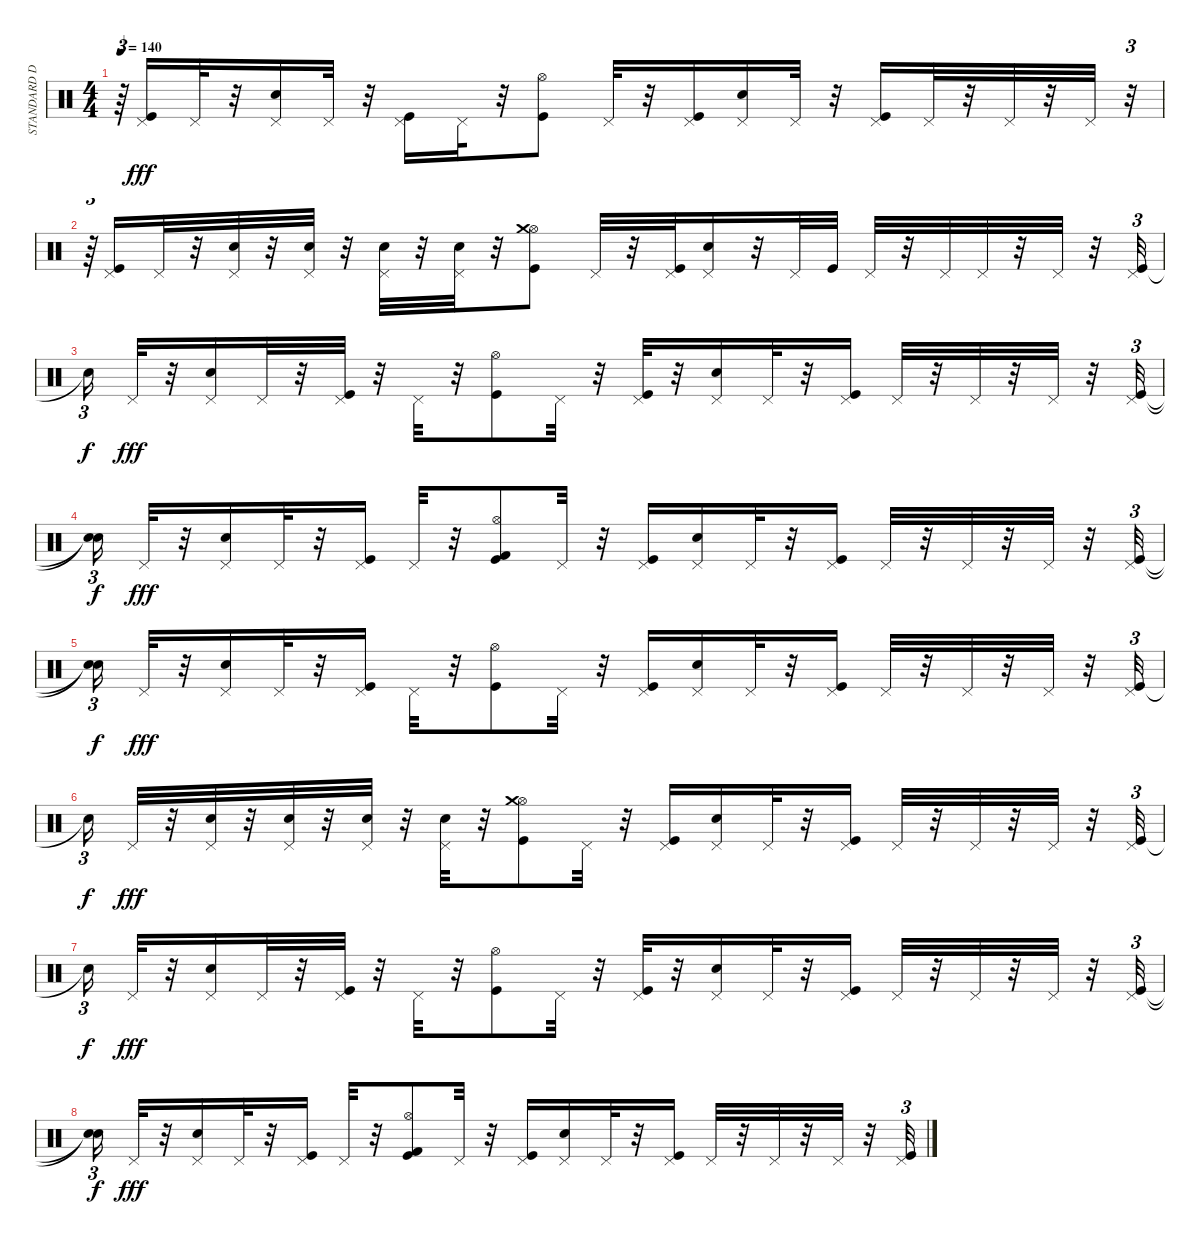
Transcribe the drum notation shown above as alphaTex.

\track ("STANDARD DRUMS" "STANDARD D") {instrument percussion}
\staff {score}
\articulation defaults
\ts (4 4)
\tempo 140
\clef neutral
\ks c
r.64{tu (3 2) dy fff} ("Kick (hit)" "Pedal Hi-Hat (hit)").16 "Pedal Hi-Hat (hit)".32 r.32 ("Snare (hit) 2" "Pedal Hi-Hat (hit)").16 "Pedal Hi-Hat (hit)".32 r.32 ("Kick (hit)" "Pedal Hi-Hat (hit)").16 "Pedal Hi-Hat (hit)".32 r.32 ("Kick (hit)" "Hi-Hat (open)").8 "Pedal Hi-Hat (hit)".32 r.32 ("Kick (hit)" "Pedal Hi-Hat (hit)").16 ("Snare (hit) 2" "Pedal Hi-Hat (hit)").16 "Pedal Hi-Hat (hit)".32 r.32 ("Kick (hit)" "Pedal Hi-Hat (hit)").16 "Pedal Hi-Hat (hit)".32 r.32 "Pedal Hi-Hat (hit)".32 r.32 "Pedal Hi-Hat (hit)".32 r.32{tu (3 2)} |
r.64{tu (3 2)} ("Kick (hit)" "Pedal Hi-Hat (hit)").16 "Pedal Hi-Hat (hit)".32 r.32 ("Snare (hit) 2" "Pedal Hi-Hat (hit)").32 r.32 ("Snare (hit) 2" "Pedal Hi-Hat (hit)").32 r.32 ("Snare (hit) 2" "Pedal Hi-Hat (hit)").32 r.32 ("Snare (hit) 2" "Pedal Hi-Hat (hit)").32 r.32 ("Kick (hit)" "Hi-Hat (open)" "Crash medium (hit)").8 "Pedal Hi-Hat (hit)".32 r.32 ("Kick (hit)" "Pedal Hi-Hat (hit)").32 ("Snare (hit) 2" "Pedal Hi-Hat (hit)").16 r.32 "Pedal Hi-Hat (hit)".32 "Kick (hit)".32 "Pedal Hi-Hat (hit)".32 r.32 "Pedal Hi-Hat (hit)".32 "Pedal Hi-Hat (hit)".32 r.32 "Pedal Hi-Hat (hit)".32 r.32 ("Kick (hit)" "Pedal Hi-Hat (hit)").32{tu (3 2)} |
"Snare (hit)"{t}.16{tu (3 2) dy f} "Pedal Hi-Hat (hit)".32{dy fff} r.32 ("Snare (hit) 2" "Pedal Hi-Hat (hit)").16 "Pedal Hi-Hat (hit)".32 r.32 ("Kick (hit)" "Pedal Hi-Hat (hit)").32 r.32 "Pedal Hi-Hat (hit)".32 r.32 ("Kick (hit)" "Hi-Hat (open)").8 "Pedal Hi-Hat (hit)".32 r.32 ("Kick (hit)" "Pedal Hi-Hat (hit)").32 r.32 ("Snare (hit) 2" "Pedal Hi-Hat (hit)").16 "Pedal Hi-Hat (hit)".32 r.32 ("Kick (hit)" "Pedal Hi-Hat (hit)").16 "Pedal Hi-Hat (hit)".32 r.32 "Pedal Hi-Hat (hit)".32 r.32 "Pedal Hi-Hat (hit)".32 r.32 ("Kick (hit)" "Pedal Hi-Hat (hit)").32{tu (3 2)} |
("Snare (hit)"{t} "Snare (hit)"{t}).16{tu (3 2) dy f} "Pedal Hi-Hat (hit)".32{dy fff} r.32 ("Snare (hit) 2" "Pedal Hi-Hat (hit)").16 "Pedal Hi-Hat (hit)".32 r.32 ("Kick (hit)" "Pedal Hi-Hat (hit)").16 "Pedal Hi-Hat (hit)".32 r.32 ("Kick (hit)" "Kick (hit) 2" "Hi-Hat (open)").8 "Pedal Hi-Hat (hit)".32 r.32 ("Kick (hit)" "Pedal Hi-Hat (hit)").16 ("Snare (hit) 2" "Pedal Hi-Hat (hit)").16 "Pedal Hi-Hat (hit)".32 r.32 ("Kick (hit)" "Pedal Hi-Hat (hit)").16 "Pedal Hi-Hat (hit)".32 r.32 "Pedal Hi-Hat (hit)".32 r.32 "Pedal Hi-Hat (hit)".32 r.32 ("Kick (hit)" "Pedal Hi-Hat (hit)").32{tu (3 2)} |
("Snare (hit)"{t} "Snare (hit)"{t}).16{tu (3 2) dy f} "Pedal Hi-Hat (hit)".32{dy fff} r.32 ("Snare (hit) 2" "Pedal Hi-Hat (hit)").16 "Pedal Hi-Hat (hit)".32 r.32 ("Kick (hit)" "Pedal Hi-Hat (hit)").16 "Pedal Hi-Hat (hit)".32 r.32 ("Kick (hit)" "Hi-Hat (open)").8 "Pedal Hi-Hat (hit)".32 r.32 ("Kick (hit)" "Pedal Hi-Hat (hit)").16 ("Snare (hit) 2" "Pedal Hi-Hat (hit)").16 "Pedal Hi-Hat (hit)".32 r.32 ("Kick (hit)" "Pedal Hi-Hat (hit)").16 "Pedal Hi-Hat (hit)".32 r.32 "Pedal Hi-Hat (hit)".32 r.32 "Pedal Hi-Hat (hit)".32 r.32 ("Kick (hit)" "Pedal Hi-Hat (hit)").32{tu (3 2)} |
"Snare (hit)"{t}.16{tu (3 2) dy f} "Pedal Hi-Hat (hit)".32{dy fff} r.32 ("Snare (hit) 2" "Pedal Hi-Hat (hit)").32 r.32 ("Snare (hit) 2" "Pedal Hi-Hat (hit)").32 r.32 ("Snare (hit) 2" "Pedal Hi-Hat (hit)").32 r.32 ("Snare (hit) 2" "Pedal Hi-Hat (hit)").32 r.32 ("Kick (hit)" "Hi-Hat (open)" "Crash medium (hit)").8 "Pedal Hi-Hat (hit)".32 r.32 ("Kick (hit)" "Pedal Hi-Hat (hit)").16 ("Snare (hit) 2" "Pedal Hi-Hat (hit)").16 "Pedal Hi-Hat (hit)".32 r.32 ("Kick (hit)" "Pedal Hi-Hat (hit)").16 "Pedal Hi-Hat (hit)".32 r.32 "Pedal Hi-Hat (hit)".32 r.32 "Pedal Hi-Hat (hit)".32 r.32 ("Kick (hit)" "Pedal Hi-Hat (hit)").32{tu (3 2)} |
"Snare (hit)"{t}.16{tu (3 2) dy f} "Pedal Hi-Hat (hit)".32{dy fff} r.32 ("Snare (hit) 2" "Pedal Hi-Hat (hit)").16 "Pedal Hi-Hat (hit)".32 r.32 ("Kick (hit)" "Pedal Hi-Hat (hit)").32 r.32 "Pedal Hi-Hat (hit)".32 r.32 ("Kick (hit)" "Hi-Hat (open)").8 "Pedal Hi-Hat (hit)".32 r.32 ("Kick (hit)" "Pedal Hi-Hat (hit)").32 r.32 ("Snare (hit) 2" "Pedal Hi-Hat (hit)").16 "Pedal Hi-Hat (hit)".32 r.32 ("Kick (hit)" "Pedal Hi-Hat (hit)").16 "Pedal Hi-Hat (hit)".32 r.32 "Pedal Hi-Hat (hit)".32 r.32 "Pedal Hi-Hat (hit)".32 r.32 ("Kick (hit)" "Pedal Hi-Hat (hit)").32{tu (3 2)} |
("Snare (hit)"{t} "Snare (hit)"{t}).16{tu (3 2) dy f} "Pedal Hi-Hat (hit)".32{dy fff} r.32 ("Snare (hit) 2" "Pedal Hi-Hat (hit)").16 "Pedal Hi-Hat (hit)".32 r.32 ("Kick (hit)" "Pedal Hi-Hat (hit)").16 "Pedal Hi-Hat (hit)".32 r.32 ("Kick (hit)" "Kick (hit) 2" "Hi-Hat (open)").8 "Pedal Hi-Hat (hit)".32 r.32 ("Kick (hit)" "Pedal Hi-Hat (hit)").16 ("Snare (hit) 2" "Pedal Hi-Hat (hit)").16 "Pedal Hi-Hat (hit)".32 r.32 ("Kick (hit)" "Pedal Hi-Hat (hit)").16 "Pedal Hi-Hat (hit)".32 r.32 "Pedal Hi-Hat (hit)".32 r.32 "Pedal Hi-Hat (hit)".32 r.32 ("Kick (hit)" "Pedal Hi-Hat (hit)").32{tu (3 2)}
